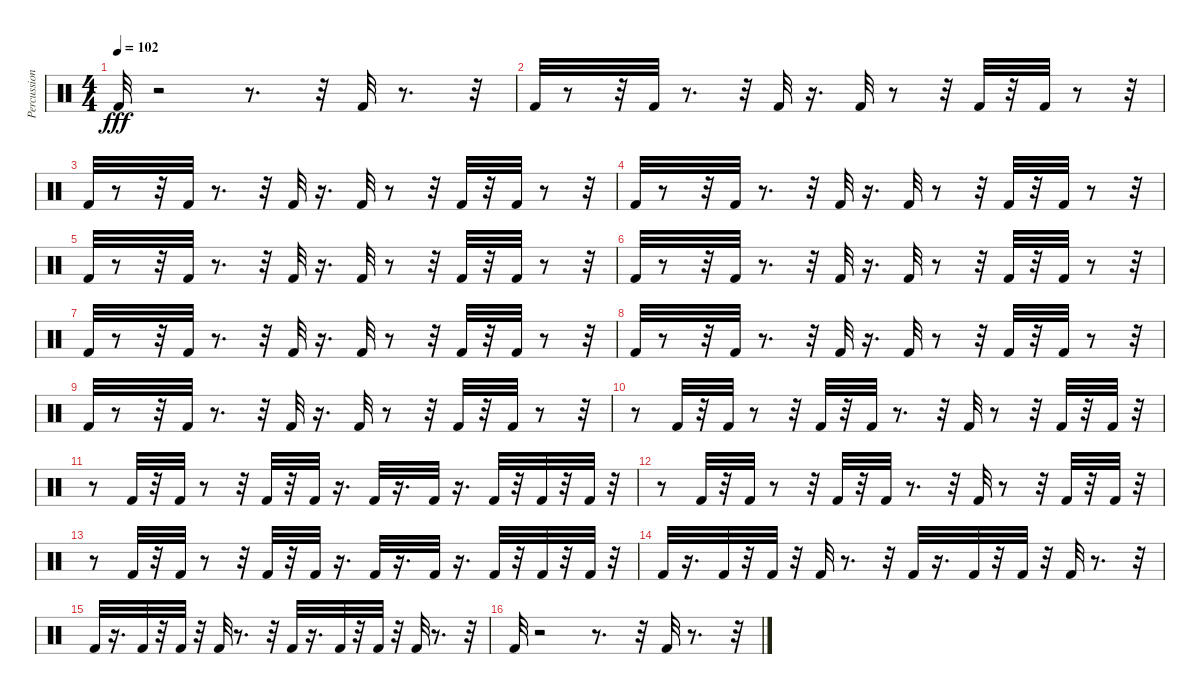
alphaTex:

\track ("Percussion" "Percussion") {instrument percussion}
\staff {score}
\articulation defaults
\ts (4 4)
\tempo 102
\clef neutral
\ks c "Kick (hit) 2".32{dy fff}
r.2 r.8{d} r.32 "Kick (hit) 2".32 r.8{d} r.32 |
"Kick (hit) 2".32 r.8 r.32 "Kick (hit) 2".32 r.8{d} r.32 "Kick (hit) 2".32 r.16{d} "Kick (hit) 2".32 r.8 r.32 "Kick (hit) 2".32 r.32 "Kick (hit) 2".32 r.8 r.32 |
"Kick (hit) 2".32 r.8 r.32 "Kick (hit) 2".32 r.8{d} r.32 "Kick (hit) 2".32 r.16{d} "Kick (hit) 2".32 r.8 r.32 "Kick (hit) 2".32 r.32 "Kick (hit) 2".32 r.8 r.32 |
"Kick (hit) 2".32 r.8 r.32 "Kick (hit) 2".32 r.8{d} r.32 "Kick (hit) 2".32 r.16{d} "Kick (hit) 2".32 r.8 r.32 "Kick (hit) 2".32 r.32 "Kick (hit) 2".32 r.8 r.32 |
"Kick (hit) 2".32 r.8 r.32 "Kick (hit) 2".32 r.8{d} r.32 "Kick (hit) 2".32 r.16{d} "Kick (hit) 2".32 r.8 r.32 "Kick (hit) 2".32 r.32 "Kick (hit) 2".32 r.8 r.32 |
"Kick (hit) 2".32 r.8 r.32 "Kick (hit) 2".32 r.8{d} r.32 "Kick (hit) 2".32 r.16{d} "Kick (hit) 2".32 r.8 r.32 "Kick (hit) 2".32 r.32 "Kick (hit) 2".32 r.8 r.32 |
"Kick (hit) 2".32 r.8 r.32 "Kick (hit) 2".32 r.8{d} r.32 "Kick (hit) 2".32 r.16{d} "Kick (hit) 2".32 r.8 r.32 "Kick (hit) 2".32 r.32 "Kick (hit) 2".32 r.8 r.32 |
"Kick (hit) 2".32 r.8 r.32 "Kick (hit) 2".32 r.8{d} r.32 "Kick (hit) 2".32 r.16{d} "Kick (hit) 2".32 r.8 r.32 "Kick (hit) 2".32 r.32 "Kick (hit) 2".32 r.8 r.32 |
"Kick (hit) 2".32 r.8 r.32 "Kick (hit) 2".32 r.8{d} r.32 "Kick (hit) 2".32 r.16{d} "Kick (hit) 2".32 r.8 r.32 "Kick (hit) 2".32 r.32 "Kick (hit) 2".32 r.8 r.32 |
r.8 "Kick (hit) 2".32 r.32 "Kick (hit) 2".32 r.8 r.32 "Kick (hit) 2".32 r.32 "Kick (hit) 2".32 r.8{d} r.32 "Kick (hit) 2".32 r.8 r.32 "Kick (hit) 2".32 r.32 "Kick (hit) 2".32 r.32 |
r.8 "Kick (hit) 2".32 r.32 "Kick (hit) 2".32 r.8 r.32 "Kick (hit) 2".32 r.32 "Kick (hit) 2".32 r.16{d} "Kick (hit) 2".32 r.16{d} "Kick (hit) 2".32 r.16{d} "Kick (hit) 2".32 r.32 "Kick (hit) 2".32 r.32 "Kick (hit) 2".32 r.32 |
r.8 "Kick (hit) 2".32 r.32 "Kick (hit) 2".32 r.8 r.32 "Kick (hit) 2".32 r.32 "Kick (hit) 2".32 r.8{d} r.32 "Kick (hit) 2".32 r.8 r.32 "Kick (hit) 2".32 r.32 "Kick (hit) 2".32 r.32 |
r.8 "Kick (hit) 2".32 r.32 "Kick (hit) 2".32 r.8 r.32 "Kick (hit) 2".32 r.32 "Kick (hit) 2".32 r.16{d} "Kick (hit) 2".32 r.16{d} "Kick (hit) 2".32 r.16{d} "Kick (hit) 2".32 r.32 "Kick (hit) 2".32 r.32 "Kick (hit) 2".32 r.32 |
"Kick (hit) 2".32 r.16{d} "Kick (hit) 2".32 r.32 "Kick (hit) 2".32 r.32 "Kick (hit) 2".32 r.8{d} r.32 "Kick (hit) 2".32 r.16{d} "Kick (hit) 2".32 r.32 "Kick (hit) 2".32 r.32 "Kick (hit) 2".32 r.8{d} r.32 |
"Kick (hit) 2".32 r.16{d} "Kick (hit) 2".32 r.32 "Kick (hit) 2".32 r.32 "Kick (hit) 2".32 r.8{d} r.32 "Kick (hit) 2".32 r.16{d} "Kick (hit) 2".32 r.32 "Kick (hit) 2".32 r.32 "Kick (hit) 2".32 r.8{d} r.32 |
"Kick (hit) 2".32 r.2 r.8{d} r.32 "Kick (hit) 2".32 r.8{d} r.32
